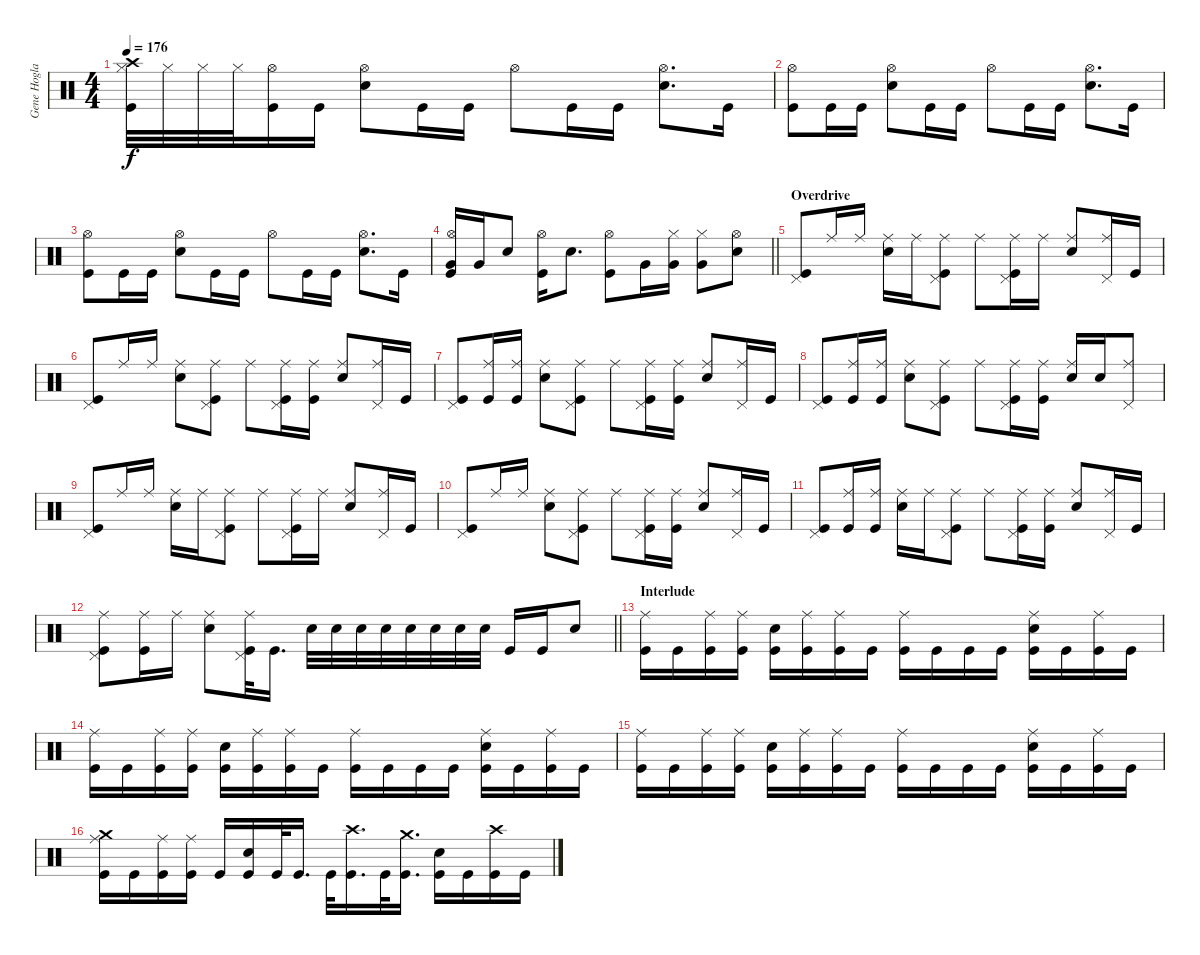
\track ("Gene Hoglan " "Gene Hogla") {instrument percussion}
\staff {score}
\articulation defaults
\ts (4 4)
\tempo 176
\clef neutral
\ks c
("Hi-Hat (closed)" "Crash high (hit)" "Kick (hit)").32{dy f} "Hi-Hat (closed)".32 "Hi-Hat (closed)".32 "Hi-Hat (closed)".32 ("Hi-Hat (open)" "Kick (hit)").16 "Kick (hit)".16 ("Hi-Hat (open)" "Snare (hit) 2").8 "Kick (hit)".16 "Kick (hit)".16 "Hi-Hat (open)".8 "Kick (hit)".16 "Kick (hit)".16 ("Hi-Hat (open)" "Snare (hit) 2").8{d} "Kick (hit)".16 |
("Hi-Hat (open)" "Kick (hit)").8 "Kick (hit)".16 "Kick (hit)".16 ("Hi-Hat (open)" "Snare (hit) 2").8 "Kick (hit)".16 "Kick (hit)".16 "Hi-Hat (open)".8 "Kick (hit)".16 "Kick (hit)".16 ("Hi-Hat (open)" "Snare (hit) 2").8{d} "Kick (hit)".16 |
("Hi-Hat (open)" "Kick (hit)").8 "Kick (hit)".16 "Kick (hit)".16 ("Hi-Hat (open)" "Snare (hit) 2").8 "Kick (hit)".16 "Kick (hit)".16 "Hi-Hat (open)".8 "Kick (hit)".16 "Kick (hit)".16 ("Hi-Hat (open)" "Snare (hit) 2").8{d} "Kick (hit)".16 |
\barLineRight lightlight
("Hi-Hat (open)" "Very Low Tom (hit)" "Kick (hit)").16 "Very Low Tom (hit)".16 "Snare (hit) 2".8 ("Hi-Hat (open)" "Kick (hit)").16 "Snare (hit) 2".8{d} ("Hi-Hat (open)" "Kick (hit)").8 "Very Low Tom (hit)".16 ("Hi-Hat (closed)" "Very Low Tom (hit)").16 ("Hi-Hat (closed)" "Very Low Tom (hit)").8 ("Hi-Hat (open)" "Snare (hit) 2").8 |
\section ("" "Overdrive")
("Pedal Hi-Hat (hit)" "Kick (hit)").8 "Ride (middle)".16 "Ride (middle)".16 ("Ride (middle)" "Snare (hit) 2").16 "Ride (middle)".16 ("Pedal Hi-Hat (hit)" "Ride (middle)" "Kick (hit)").8 "Ride (middle)".8 ("Pedal Hi-Hat (hit)" "Ride (middle)" "Kick (hit)").16 "Ride (middle)".16 ("Ride (middle)" "Snare (hit) 2").8 ("Pedal Hi-Hat (hit)" "Ride (middle)").16 "Kick (hit)".16 |
("Pedal Hi-Hat (hit)" "Kick (hit)").8 "Ride (middle)".16 "Ride (middle)".16 ("Ride (middle)" "Snare (hit) 2").8 ("Pedal Hi-Hat (hit)" "Ride (middle)" "Kick (hit)").8 "Ride (middle)".8 ("Pedal Hi-Hat (hit)" "Ride (middle)" "Kick (hit)").16 ("Ride (middle)" "Kick (hit)").16 ("Ride (middle)" "Snare (hit) 2").8 ("Pedal Hi-Hat (hit)" "Ride (middle)").16 "Kick (hit)".16 |
("Pedal Hi-Hat (hit)" "Kick (hit)").8 ("Ride (middle)" "Kick (hit)").16 ("Ride (middle)" "Kick (hit)").16 ("Ride (middle)" "Snare (hit) 2").8 ("Pedal Hi-Hat (hit)" "Ride (middle)" "Kick (hit)").8 "Ride (middle)".8 ("Pedal Hi-Hat (hit)" "Ride (middle)" "Kick (hit)").16 ("Ride (middle)" "Kick (hit)").16 ("Ride (middle)" "Snare (hit) 2").8 ("Pedal Hi-Hat (hit)" "Ride (middle)").16 "Kick (hit)".16 |
("Pedal Hi-Hat (hit)" "Kick (hit)").8 ("Ride (middle)" "Kick (hit)").16 ("Ride (middle)" "Kick (hit)").16 ("Ride (middle)" "Snare (hit) 2").8 ("Pedal Hi-Hat (hit)" "Ride (middle)" "Kick (hit)").8 "Ride (middle)".8 ("Pedal Hi-Hat (hit)" "Ride (middle)" "Kick (hit)").16 ("Ride (middle)" "Kick (hit)").16 ("Ride (middle)" "Snare (hit) 2").16 "Snare (hit) 2".16 ("Pedal Hi-Hat (hit)" "Ride (middle)").8 |
("Pedal Hi-Hat (hit)" "Kick (hit)").8 "Ride (middle)".16 "Ride (middle)".16 ("Ride (middle)" "Snare (hit) 2").16 "Ride (middle)".16 ("Pedal Hi-Hat (hit)" "Ride (middle)" "Kick (hit)").8 "Ride (middle)".8 ("Pedal Hi-Hat (hit)" "Ride (middle)" "Kick (hit)").16 "Ride (middle)".16 ("Ride (middle)" "Snare (hit) 2").8 ("Pedal Hi-Hat (hit)" "Ride (middle)").16 "Kick (hit)".16 |
("Pedal Hi-Hat (hit)" "Kick (hit)").8 "Ride (middle)".16 "Ride (middle)".16 ("Ride (middle)" "Snare (hit) 2").8 ("Pedal Hi-Hat (hit)" "Ride (middle)" "Kick (hit)").8 "Ride (middle)".8 ("Pedal Hi-Hat (hit)" "Ride (middle)" "Kick (hit)").16 ("Ride (middle)" "Kick (hit)").16 ("Ride (middle)" "Snare (hit) 2").8 ("Pedal Hi-Hat (hit)" "Ride (middle)").16 "Kick (hit)".16 |
("Pedal Hi-Hat (hit)" "Kick (hit)").8 ("Ride (middle)" "Kick (hit)").16 ("Ride (middle)" "Kick (hit)").16 ("Ride (middle)" "Snare (hit) 2").16 "Ride (middle)".16 ("Pedal Hi-Hat (hit)" "Ride (middle)" "Kick (hit)").8 "Ride (middle)".8 ("Pedal Hi-Hat (hit)" "Ride (middle)" "Kick (hit)").16 ("Ride (middle)" "Kick (hit)").16 ("Ride (middle)" "Snare (hit) 2").8 ("Pedal Hi-Hat (hit)" "Ride (middle)").16 "Kick (hit)".16 |
\barLineRight lightlight
("Pedal Hi-Hat (hit)" "Ride (middle)" "Kick (hit)").8 ("Ride (middle)" "Kick (hit)").16 "Ride (middle)".16 ("Ride (middle)" "Snare (hit) 2").8 ("Pedal Hi-Hat (hit)" "Ride (middle)" "Kick (hit)").32 "Kick (hit)".16{d} "Snare (hit) 2".32 "Snare (hit) 2".32 "Snare (hit) 2".32 "Snare (hit) 2".32 "Snare (hit) 2".32 "Snare (hit) 2".32 "Snare (hit) 2".32 "Snare (hit) 2".32 "Kick (hit)".16 "Kick (hit)".16 "Snare (hit) 2".8 |
\section ("" "Interlude")
("Ride (middle)" "Kick (hit)").16 "Kick (hit)".16 ("Ride (middle)" "Kick (hit)").16 ("Ride (middle)" "Kick (hit)").16 ("Snare (hit) 2" "Kick (hit)").16 ("Ride (middle)" "Kick (hit)").16 ("Ride (middle)" "Kick (hit)").16 "Kick (hit)".16 ("Ride (middle)" "Kick (hit)").16 "Kick (hit)".16 "Kick (hit)".16 "Kick (hit)".16 ("Ride (middle)" "Snare (hit) 2" "Kick (hit)").16 "Kick (hit)".16 ("Ride (middle)" "Kick (hit)").16 "Kick (hit)".16 |
("Ride (middle)" "Kick (hit)").16 "Kick (hit)".16 ("Ride (middle)" "Kick (hit)").16 ("Ride (middle)" "Kick (hit)").16 ("Snare (hit) 2" "Kick (hit)").16 ("Ride (middle)" "Kick (hit)").16 ("Ride (middle)" "Kick (hit)").16 "Kick (hit)".16 ("Ride (middle)" "Kick (hit)").16 "Kick (hit)".16 "Kick (hit)".16 "Kick (hit)".16 ("Ride (middle)" "Snare (hit) 2" "Kick (hit)").16 "Kick (hit)".16 ("Ride (middle)" "Kick (hit)").16 "Kick (hit)".16 |
("Ride (middle)" "Kick (hit)").16 "Kick (hit)".16 ("Ride (middle)" "Kick (hit)").16 ("Ride (middle)" "Kick (hit)").16 ("Snare (hit) 2" "Kick (hit)").16 ("Ride (middle)" "Kick (hit)").16 ("Ride (middle)" "Kick (hit)").16 "Kick (hit)".16 ("Ride (middle)" "Kick (hit)").16 "Kick (hit)".16 "Kick (hit)".16 "Kick (hit)".16 ("Ride (middle)" "Snare (hit) 2" "Kick (hit)").16 "Kick (hit)".16 ("Ride (middle)" "Kick (hit)").16 "Kick (hit)".16 |
("Crash medium (hit)" "Ride (middle)" "Kick (hit)").16 "Kick (hit)".16 ("Ride (middle)" "Kick (hit)").16 ("Ride (middle)" "Kick (hit)").16 "Kick (hit)".16 ("Snare (hit) 2" "Kick (hit)").16 "Kick (hit)".32 "Kick (hit)".16{d} "Kick (hit)".32 ("Crash high (hit)" "Kick (hit)").16{d} "Kick (hit)".32 ("Crash medium (hit)" "Kick (hit)").16{d} ("Snare (hit) 2" "Kick (hit)").16 "Kick (hit)".16 ("Crash high (hit)" "Kick (hit)").16 "Kick (hit)".16
